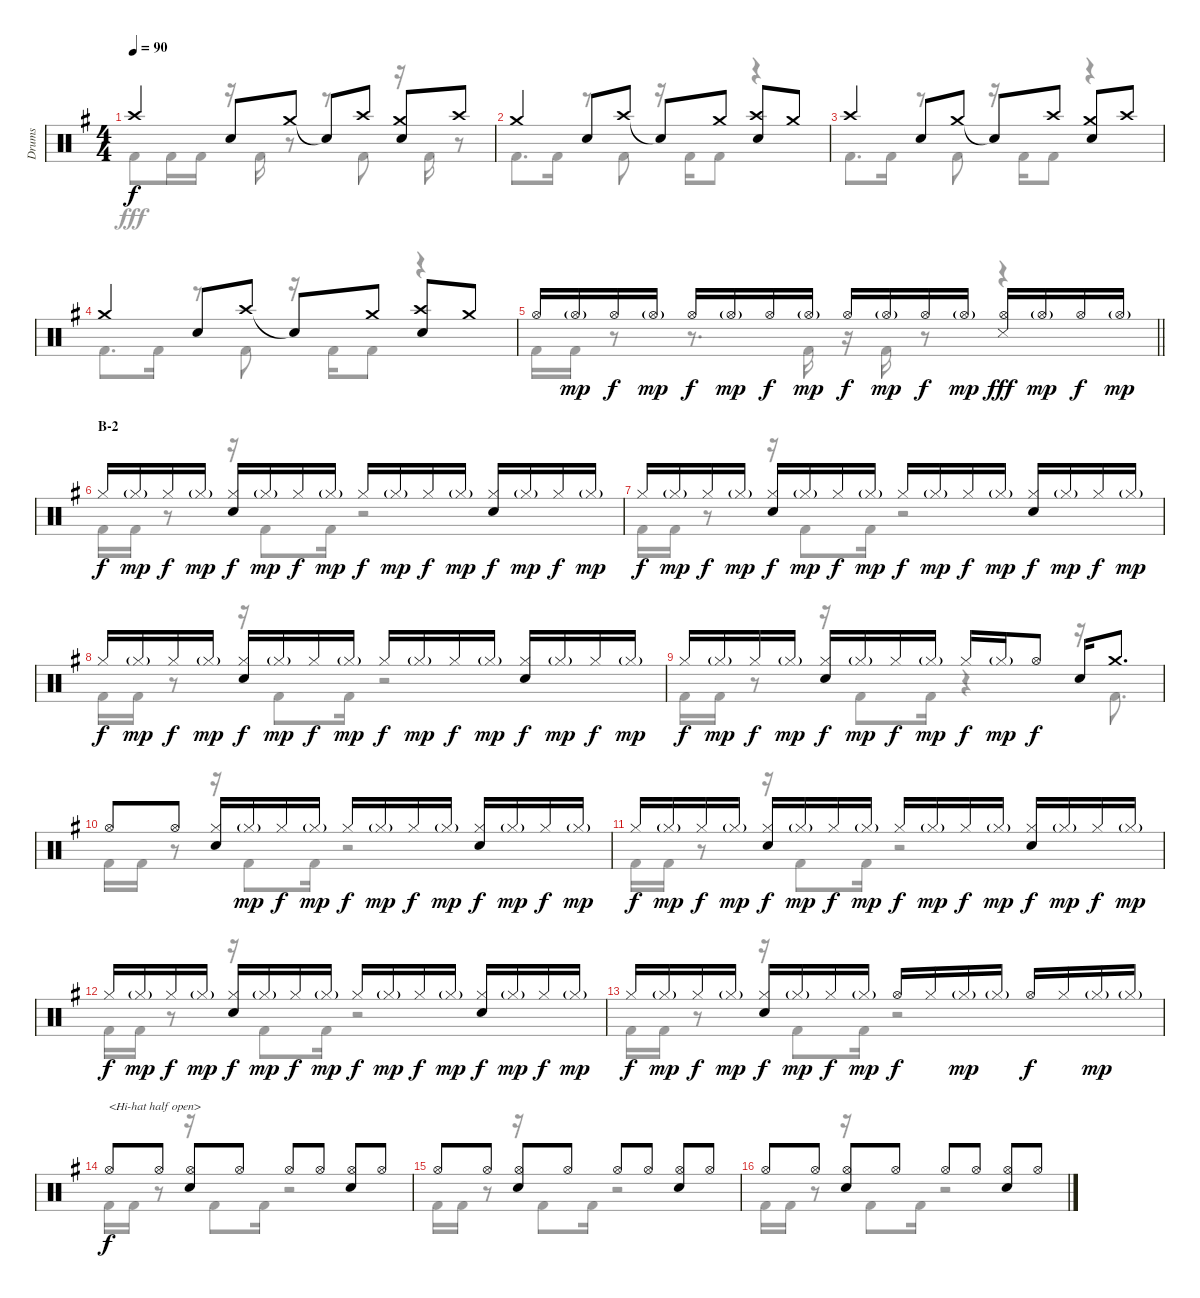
\track ("Drums" "Drums") {instrument percussion}
\staff {score}
\articulation defaults
\voice
\ts (4 4)
\tempo 90
\clef neutral
\ks g "Crash high (hit)".4{dy f} "Snare (hit) 2".8 "Crash medium (hit)".8 "Snare (hit)"{t}.8 "Crash high (hit)".8
("Crash medium (hit)" "Snare (hit) 2").8 "Crash high (hit)".8 |
"Crash medium (hit)".4 "Snare (hit) 2".8 "Crash high (hit)".8 "Snare (hit)"{t}.8 "Crash medium (hit)".8 ("Crash high (hit)" "Snare (hit) 2").8 "Crash medium (hit)".8 |
"Crash high (hit)".4 "Snare (hit) 2".8 "Crash medium (hit)".8 "Snare (hit)"{t}.8 "Crash high (hit)".8 ("Crash medium (hit)" "Snare (hit) 2").8 "Crash high (hit)".8 |
"Crash medium (hit)".4 "Snare (hit) 2".8 "Crash high (hit)".8 "Snare (hit)"{t}.8 "Crash medium (hit)".8 ("Crash high (hit)" "Snare (hit) 2").8 "Crash medium (hit)".8 |
\barLineRight lightlight "Hi-Hat (open)".16 "Hi-Hat (open)"{g}.16{dy mp} "Hi-Hat (open)".16{dy f} "Hi-Hat (open)"{g}.16{dy mp} "Hi-Hat (open)".16{dy f} "Hi-Hat (open)"{g}.16{dy mp} "Hi-Hat (open)".16{dy f} "Hi-Hat (open)"{g}.16{dy mp} "Hi-Hat (open)".16{dy f} "Hi-Hat (open)"{g}.16{dy mp} "Hi-Hat (open)".16{dy f} "Hi-Hat (open)"{g}.16{dy mp}
("Hi-Hat (open)" "Snare (side stick) 3").16{dy fff} "Hi-Hat (open)"{g}.16{dy mp} "Hi-Hat (open)".16{dy f} "Hi-Hat (open)"{g}.16{dy mp} |
\section ("" "B-2")
"Hi-Hat (closed)".16{dy f} "Hi-Hat (closed)"{g}.16{dy mp} "Hi-Hat (closed)".16{dy f} "Hi-Hat (closed)"{g}.16{dy mp} ("Hi-Hat (closed)" "Snare (hit) 2").16{dy f} "Hi-Hat (closed)"{g}.16{dy mp} "Hi-Hat (closed)".16{dy f} "Hi-Hat (closed)"{g}.16{dy mp} "Hi-Hat (closed)".16{dy f} "Hi-Hat (closed)"{g}.16{dy mp} "Hi-Hat (closed)".16{dy f} "Hi-Hat (closed)"{g}.16{dy mp} ("Hi-Hat (closed)" "Snare (hit) 2").16{dy f} "Hi-Hat (closed)"{g}.16{dy mp} "Hi-Hat (closed)".16{dy f} "Hi-Hat (closed)"{g}.16{dy mp} |
"Hi-Hat (closed)".16{dy f} "Hi-Hat (closed)"{g}.16{dy mp} "Hi-Hat (closed)".16{dy f} "Hi-Hat (closed)"{g}.16{dy mp} ("Hi-Hat (closed)" "Snare (hit) 2").16{dy f} "Hi-Hat (closed)"{g}.16{dy mp} "Hi-Hat (closed)".16{dy f} "Hi-Hat (closed)"{g}.16{dy mp} "Hi-Hat (closed)".16{dy f} "Hi-Hat (closed)"{g}.16{dy mp} "Hi-Hat (closed)".16{dy f} "Hi-Hat (closed)"{g}.16{dy mp} ("Hi-Hat (closed)" "Snare (hit) 2").16{dy f} "Hi-Hat (closed)"{g}.16{dy mp} "Hi-Hat (closed)".16{dy f} "Hi-Hat (closed)"{g}.16{dy mp} |
"Hi-Hat (closed)".16{dy f} "Hi-Hat (closed)"{g}.16{dy mp} "Hi-Hat (closed)".16{dy f} "Hi-Hat (closed)"{g}.16{dy mp} ("Hi-Hat (closed)" "Snare (hit) 2").16{dy f} "Hi-Hat (closed)"{g}.16{dy mp} "Hi-Hat (closed)".16{dy f} "Hi-Hat (closed)"{g}.16{dy mp} "Hi-Hat (closed)".16{dy f} "Hi-Hat (closed)"{g}.16{dy mp} "Hi-Hat (closed)".16{dy f} "Hi-Hat (closed)"{g}.16{dy mp} ("Hi-Hat (closed)" "Snare (hit) 2").16{dy f} "Hi-Hat (closed)"{g}.16{dy mp} "Hi-Hat (closed)".16{dy f} "Hi-Hat (closed)"{g}.16{dy mp} |
"Hi-Hat (closed)".16{dy f} "Hi-Hat (closed)"{g}.16{dy mp} "Hi-Hat (closed)".16{dy f} "Hi-Hat (closed)"{g}.16{dy mp} ("Hi-Hat (closed)" "Snare (hit) 2").16{dy f} "Hi-Hat (closed)"{g}.16{dy mp} "Hi-Hat (closed)".16{dy f} "Hi-Hat (closed)"{g}.16{dy mp} "Hi-Hat (closed)".16{dy f} "Hi-Hat (closed)"{g}.16{dy mp} "Hi-Hat (open)".8{dy f} "Snare (hit) 2".16 "Crash medium (hit)".8{d} |
"Hi-Hat (open)".8 "Hi-Hat (open)".8 ("Hi-Hat (closed)" "Snare (hit) 2").16 "Hi-Hat (closed)"{g}.16{dy mp} "Hi-Hat (closed)".16{dy f} "Hi-Hat (closed)"{g}.16{dy mp} "Hi-Hat (closed)".16{dy f} "Hi-Hat (closed)"{g}.16{dy mp} "Hi-Hat (closed)".16{dy f} "Hi-Hat (closed)"{g}.16{dy mp} ("Hi-Hat (closed)" "Snare (hit) 2").16{dy f} "Hi-Hat (closed)"{g}.16{dy mp} "Hi-Hat (closed)".16{dy f} "Hi-Hat (closed)"{g}.16{dy mp} |
"Hi-Hat (closed)".16{dy f} "Hi-Hat (closed)"{g}.16{dy mp} "Hi-Hat (closed)".16{dy f} "Hi-Hat (closed)"{g}.16{dy mp} ("Hi-Hat (closed)" "Snare (hit) 2").16{dy f} "Hi-Hat (closed)"{g}.16{dy mp} "Hi-Hat (closed)".16{dy f} "Hi-Hat (closed)"{g}.16{dy mp} "Hi-Hat (closed)".16{dy f} "Hi-Hat (closed)"{g}.16{dy mp} "Hi-Hat (closed)".16{dy f} "Hi-Hat (closed)"{g}.16{dy mp} ("Hi-Hat (closed)" "Snare (hit) 2").16{dy f} "Hi-Hat (closed)"{g}.16{dy mp} "Hi-Hat (closed)".16{dy f} "Hi-Hat (closed)"{g}.16{dy mp} |
"Hi-Hat (closed)".16{dy f} "Hi-Hat (closed)"{g}.16{dy mp} "Hi-Hat (closed)".16{dy f} "Hi-Hat (closed)"{g}.16{dy mp} ("Hi-Hat (closed)" "Snare (hit) 2").16{dy f} "Hi-Hat (closed)"{g}.16{dy mp} "Hi-Hat (closed)".16{dy f} "Hi-Hat (closed)"{g}.16{dy mp} "Hi-Hat (closed)".16{dy f} "Hi-Hat (closed)"{g}.16{dy mp} "Hi-Hat (closed)".16{dy f} "Hi-Hat (closed)"{g}.16{dy mp} ("Hi-Hat (closed)" "Snare (hit) 2").16{dy f} "Hi-Hat (closed)"{g}.16{dy mp} "Hi-Hat (closed)".16{dy f} "Hi-Hat (closed)"{g}.16{dy mp} |
"Hi-Hat (closed)".16{dy f} "Hi-Hat (closed)"{g}.16{dy mp} "Hi-Hat (closed)".16{dy f} "Hi-Hat (closed)"{g}.16{dy mp} ("Hi-Hat (closed)" "Snare (hit) 2").16{dy f} "Hi-Hat (closed)"{g}.16{dy mp} "Hi-Hat (closed)".16{dy f} "Hi-Hat (closed)"{g}.16{dy mp} "Hi-Hat (open)".16{dy f} "Hi-Hat (closed)".16 "Hi-Hat (closed)"{g}.16{dy mp} "Hi-Hat (closed)"{g}.16 "Hi-Hat (open)".16{dy f} "Hi-Hat (closed)".16 "Hi-Hat (closed)"{g}.16{dy mp} "Hi-Hat (closed)"{g}.16 |
"Hi-Hat (open)".8{txt "<Hi-hat half open>" dy f} "Hi-Hat (open)".8 ("Hi-Hat (open)" "Snare (hit) 2").8 "Hi-Hat (open)".8 "Hi-Hat (open)".8 "Hi-Hat (open)".8 ("Hi-Hat (open)" "Snare (hit) 2").8 "Hi-Hat (open)".8 |
"Hi-Hat (open)".8 "Hi-Hat (open)".8 ("Hi-Hat (open)" "Snare (hit) 2").8 "Hi-Hat (open)".8 "Hi-Hat (open)".8 "Hi-Hat (open)".8 ("Hi-Hat (open)" "Snare (hit) 2").8 "Hi-Hat (open)".8 |
"Hi-Hat (open)".8 "Hi-Hat (open)".8 ("Hi-Hat (open)" "Snare (hit) 2").8 "Hi-Hat (open)".8 "Hi-Hat (open)".8 "Hi-Hat (open)".8 ("Hi-Hat (open)" "Snare (hit) 2").8 "Hi-Hat (open)".8
\voice
\clef neutral
\ottava regular
\simile none
\ks g "Kick (hit) 2".8{dy fff} "Kick (hit) 2".16 "Kick (hit) 2".16
r.16 "Kick (hit) 2".16 r.8 r.8 "Kick (hit) 2".8 r.16 "Kick (hit) 2".16 r.8 |
"Kick (hit) 2".8{d} "Kick (hit) 2".16 r.8 "Kick (hit) 2".8 r.16 "Kick (hit) 2".16 "Kick (hit) 2".8 r.4 |
"Kick (hit) 2".8{d} "Kick (hit) 2".16 r.8 "Kick (hit) 2".8 r.16 "Kick (hit) 2".16 "Kick (hit) 2".8 r.4 |
"Kick (hit) 2".8{d} "Kick (hit) 2".16 r.8 "Kick (hit) 2".8 r.16 "Kick (hit) 2".16 "Kick (hit) 2".8 r.4 |
\barLineRight lightlight "Kick (hit) 2".16 "Kick (hit) 2".16
r.8 r.8{d} "Kick (hit) 2".16 r.16 "Kick (hit) 2".16 r.8 r.4 |
"Kick (hit) 2".16 "Kick (hit) 2".16 r.8 r.16 "Kick (hit) 2".8 "Kick (hit) 2".16 r.2 |
"Kick (hit) 2".16 "Kick (hit) 2".16 r.8 r.16 "Kick (hit) 2".8 "Kick (hit) 2".16 r.2 |
"Kick (hit) 2".16 "Kick (hit) 2".16 r.8 r.16 "Kick (hit) 2".8 "Kick (hit) 2".16 r.2 |
"Kick (hit) 2".16 "Kick (hit) 2".16 r.8 r.16 "Kick (hit) 2".8 "Kick (hit) 2".16 r.4 r.16 "Kick (hit) 2".8{d} |
"Kick (hit) 2".16 "Kick (hit) 2".16 r.8 r.16 "Kick (hit) 2".8 "Kick (hit) 2".16 r.2 |
"Kick (hit) 2".16 "Kick (hit) 2".16 r.8 r.16 "Kick (hit) 2".8 "Kick (hit) 2".16 r.2 |
"Kick (hit) 2".16 "Kick (hit) 2".16 r.8 r.16 "Kick (hit) 2".8 "Kick (hit) 2".16 r.2 |
"Kick (hit) 2".16 "Kick (hit) 2".16 r.8 r.16 "Kick (hit) 2".8 "Kick (hit) 2".16 r.2 |
"Kick (hit) 2".16 "Kick (hit) 2".16 r.8 r.16 "Kick (hit) 2".8 "Kick (hit) 2".16 r.2 |
"Kick (hit) 2".16 "Kick (hit) 2".16 r.8 r.16 "Kick (hit) 2".8 "Kick (hit) 2".16 r.2 |
"Kick (hit) 2".16 "Kick (hit) 2".16 r.8 r.16 "Kick (hit) 2".8 "Kick (hit) 2".16 r.2
